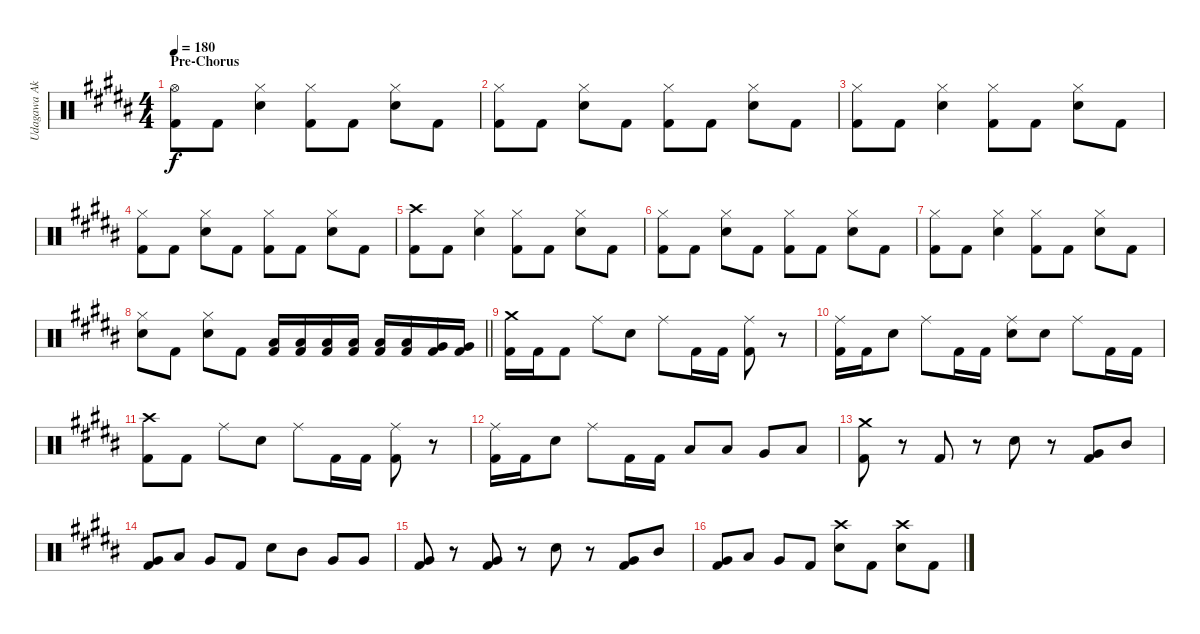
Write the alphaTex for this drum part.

\track ("Udagawa Ako" "Udagawa Ak") {instrument percussion}
\staff {score}
\articulation defaults
\ts (4 4)
\section ("" "Pre-Chorus")
\tempo 180
\clef neutral
\ks b
("Hi-Hat (open)" "Kick (hit) 2").8{dy f} "Kick (hit) 2".8 ("Hi-Hat (closed)" "Electric Snare (hit)").4 ("Hi-Hat (closed)" "Kick (hit) 2").8 "Kick (hit) 2".8 ("Hi-Hat (closed)" "Electric Snare (hit)").8 "Kick (hit) 2".8 |
("Hi-Hat (closed)" "Kick (hit) 2").8 "Kick (hit) 2".8 ("Hi-Hat (closed)" "Electric Snare (hit)").8 "Kick (hit) 2".8 ("Hi-Hat (closed)" "Kick (hit) 2").8 "Kick (hit) 2".8 ("Hi-Hat (closed)" "Electric Snare (hit)").8 "Kick (hit) 2".8 |
("Hi-Hat (closed)" "Kick (hit) 2").8 "Kick (hit) 2".8 ("Hi-Hat (closed)" "Electric Snare (hit)").4 ("Hi-Hat (closed)" "Kick (hit) 2").8 "Kick (hit) 2".8 ("Hi-Hat (closed)" "Electric Snare (hit)").8 "Kick (hit) 2".8 |
("Hi-Hat (closed)" "Kick (hit) 2").8 "Kick (hit) 2".8 ("Hi-Hat (closed)" "Electric Snare (hit)").8 "Kick (hit) 2".8 ("Hi-Hat (closed)" "Kick (hit) 2").8 "Kick (hit) 2".8 ("Hi-Hat (closed)" "Electric Snare (hit)").8 "Kick (hit) 2".8 |
("Crash high (hit)" "Kick (hit) 2").8 "Kick (hit) 2".8 ("Hi-Hat (closed)" "Electric Snare (hit)").4 ("Hi-Hat (closed)" "Kick (hit) 2").8 "Kick (hit) 2".8 ("Hi-Hat (closed)" "Electric Snare (hit)").8 "Kick (hit) 2".8 |
("Hi-Hat (closed)" "Kick (hit) 2").8 "Kick (hit) 2".8 ("Hi-Hat (closed)" "Electric Snare (hit)").8 "Kick (hit) 2".8 ("Hi-Hat (closed)" "Kick (hit) 2").8 "Kick (hit) 2".8 ("Hi-Hat (closed)" "Electric Snare (hit)").8 "Kick (hit) 2".8 |
("Hi-Hat (closed)" "Kick (hit) 2").8 "Kick (hit) 2".8 ("Hi-Hat (closed)" "Electric Snare (hit)").4 ("Hi-Hat (closed)" "Kick (hit) 2").8 "Kick (hit) 2".8 ("Hi-Hat (closed)" "Electric Snare (hit)").8 "Kick (hit) 2".8 |
\barLineRight lightlight
("Hi-Hat (closed)" "Electric Snare (hit)").8 "Kick (hit) 2".8 ("Hi-Hat (closed)" "Electric Snare (hit)").8 "Kick (hit) 2".8 ("Low Tom (hit)" "Kick (hit) 2").16 ("Low Tom (hit)" "Kick (hit) 2").16 ("Low Tom (hit)" "Kick (hit) 2").16 ("Low Tom (hit)" "Kick (hit) 2").16 ("Low Tom (hit)" "Kick (hit) 2").16 ("Low Tom (hit)" "Kick (hit) 2").16 ("Very Low Tom (hit)" "Kick (hit) 2").16 ("Very Low Tom (hit)" "Kick (hit) 2").16 |
("Crash medium (hit)" "Kick (hit) 2").16 "Kick (hit) 2".16 "Kick (hit) 2".8 "Ride (middle)".8 "Electric Snare (hit)".8 "Ride (middle)".8 "Kick (hit) 2".16 "Kick (hit) 2".16 ("Ride (middle)" "Kick (hit) 2").8 r.8 |
("Ride (middle)" "Kick (hit) 2").16 "Kick (hit) 2".16 "Electric Snare (hit)".8 "Ride (middle)".8 "Kick (hit) 2".16 "Kick (hit) 2".16 ("Ride (middle)" "Electric Snare (hit)").8 "Electric Snare (hit)".8 "Ride (middle)".8 "Kick (hit) 2".16 "Kick (hit) 2".16 |
("Crash high (hit)" "Kick (hit) 2").8 "Kick (hit) 2".8 "Ride (middle)".8 "Electric Snare (hit)".8 "Ride (middle)".8 "Kick (hit) 2".16 "Kick (hit) 2".16 ("Ride (middle)" "Kick (hit) 2").8 r.8 |
("Ride (middle)" "Kick (hit) 2").16 "Kick (hit) 2".16 "Electric Snare (hit)".8 "Ride (middle)".8 "Kick (hit) 2".16 "Kick (hit) 2".16 "Low Tom (hit)".8 "Low Tom (hit)".8 "Very Low Tom (hit)".8 "Low Floor Tom (hit)".8 |
("Crash medium (hit)" "Kick (hit) 2").8 r.8 "Kick (hit) 2".8 r.8 "Electric Snare (hit)".8 r.8 ("Very Low Tom (hit)" "Kick (hit) 2").8 "Mid Tom (hit)".8 |
("Very Low Tom (hit)" "Kick (hit) 2").8 "Low Tom (hit)".8 "Very Low Tom (hit)".8 "Kick (hit) 2".8 "Electric Snare (hit)".8 "Mid Tom (hit)".8 "Very Low Tom (hit)".8 "Very Low Tom (hit)".8 |
("Very Low Tom (hit)" "Kick (hit) 2").8 r.8 ("Very Low Tom (hit)" "Kick (hit) 2").8 r.8 "Electric Snare (hit)".8 r.8 ("Very Low Tom (hit)" "Kick (hit) 2").8 "Mid Tom (hit)".8 |
("Very Low Tom (hit)" "Kick (hit) 2").8 "Low Tom (hit)".8 "Very Low Tom (hit)".8 "Kick (hit) 2".8 ("Crash high (hit)" "Electric Snare (hit)").8 "Kick (hit) 2".8 ("Crash high (hit)" "Electric Snare (hit)").8 "Kick (hit) 2".8
